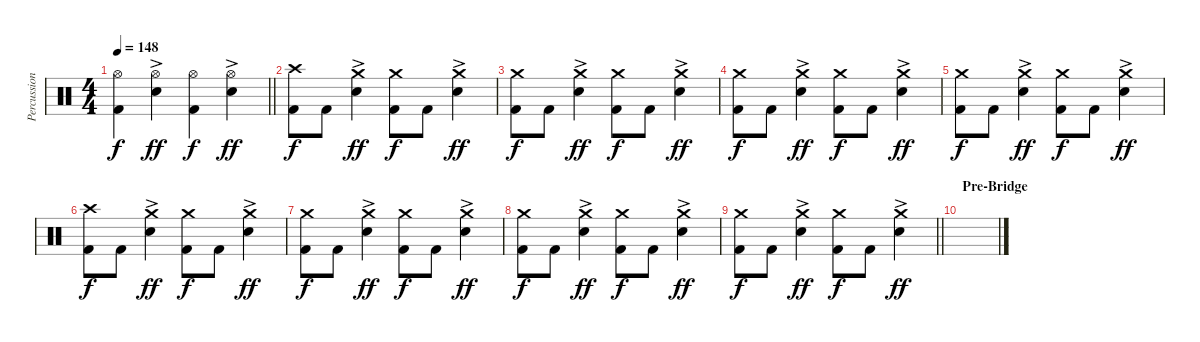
\track ("Percussion" "Percussion") {instrument percussion}
\staff {score}
\articulation defaults
\ts (4 4)
\tempo 148
\clef neutral
\barLineRight lightlight
\ks c
("Hi-Hat (open)" "Kick (hit) 2").4{dy f} ("Hi-Hat (open)" "Electric Snare (hit)"{ac}).4{dy ff} ("Hi-Hat (open)" "Kick (hit) 2").4{dy f} ("Hi-Hat (open)" "Electric Snare (hit)"{ac}).4{dy ff} |
("Crash high (hit)" "Kick (hit) 2").8{dy f} "Kick (hit) 2".8 ("Crash medium (hit)" "Electric Snare (hit)"{ac}).4{dy ff} ("Crash medium (hit)" "Kick (hit) 2").8{dy f} "Kick (hit) 2".8 ("Crash medium (hit)" "Electric Snare (hit)"{ac}).4{dy ff} |
("Crash medium (hit)" "Kick (hit) 2").8{dy f} "Kick (hit) 2".8 ("Crash medium (hit)" "Electric Snare (hit)"{ac}).4{dy ff} ("Crash medium (hit)" "Kick (hit) 2").8{dy f} "Kick (hit) 2".8 ("Crash medium (hit)" "Electric Snare (hit)"{ac}).4{dy ff} |
("Crash medium (hit)" "Kick (hit) 2").8{dy f} "Kick (hit) 2".8 ("Crash medium (hit)" "Electric Snare (hit)"{ac}).4{dy ff} ("Crash medium (hit)" "Kick (hit) 2").8{dy f} "Kick (hit) 2".8 ("Crash medium (hit)" "Electric Snare (hit)"{ac}).4{dy ff} |
("Crash medium (hit)" "Kick (hit) 2").8{dy f} "Kick (hit) 2".8 ("Crash medium (hit)" "Electric Snare (hit)"{ac}).4{dy ff} ("Crash medium (hit)" "Kick (hit) 2").8{dy f} "Kick (hit) 2".8 ("Crash medium (hit)" "Electric Snare (hit)"{ac}).4{dy ff} |
("Crash high (hit)" "Kick (hit) 2").8{dy f} "Kick (hit) 2".8 ("Crash medium (hit)" "Electric Snare (hit)"{ac}).4{dy ff} ("Crash medium (hit)" "Kick (hit) 2").8{dy f} "Kick (hit) 2".8 ("Crash medium (hit)" "Electric Snare (hit)"{ac}).4{dy ff} |
("Crash medium (hit)" "Kick (hit) 2").8{dy f} "Kick (hit) 2".8 ("Crash medium (hit)" "Electric Snare (hit)"{ac}).4{dy ff} ("Crash medium (hit)" "Kick (hit) 2").8{dy f} "Kick (hit) 2".8 ("Crash medium (hit)" "Electric Snare (hit)"{ac}).4{dy ff} |
("Crash medium (hit)" "Kick (hit) 2").8{dy f} "Kick (hit) 2".8 ("Crash medium (hit)" "Electric Snare (hit)"{ac}).4{dy ff} ("Crash medium (hit)" "Kick (hit) 2").8{dy f} "Kick (hit) 2".8 ("Crash medium (hit)" "Electric Snare (hit)"{ac}).4{dy ff} |
\barLineRight lightlight
("Crash medium (hit)" "Kick (hit) 2").8{dy f} "Kick (hit) 2".8 ("Crash medium (hit)" "Electric Snare (hit)"{ac}).4{dy ff} ("Crash medium (hit)" "Kick (hit) 2").8{dy f} "Kick (hit) 2".8 ("Crash medium (hit)" "Electric Snare (hit)"{ac}).4{dy ff} |
\section ("" "Pre-Bridge")
